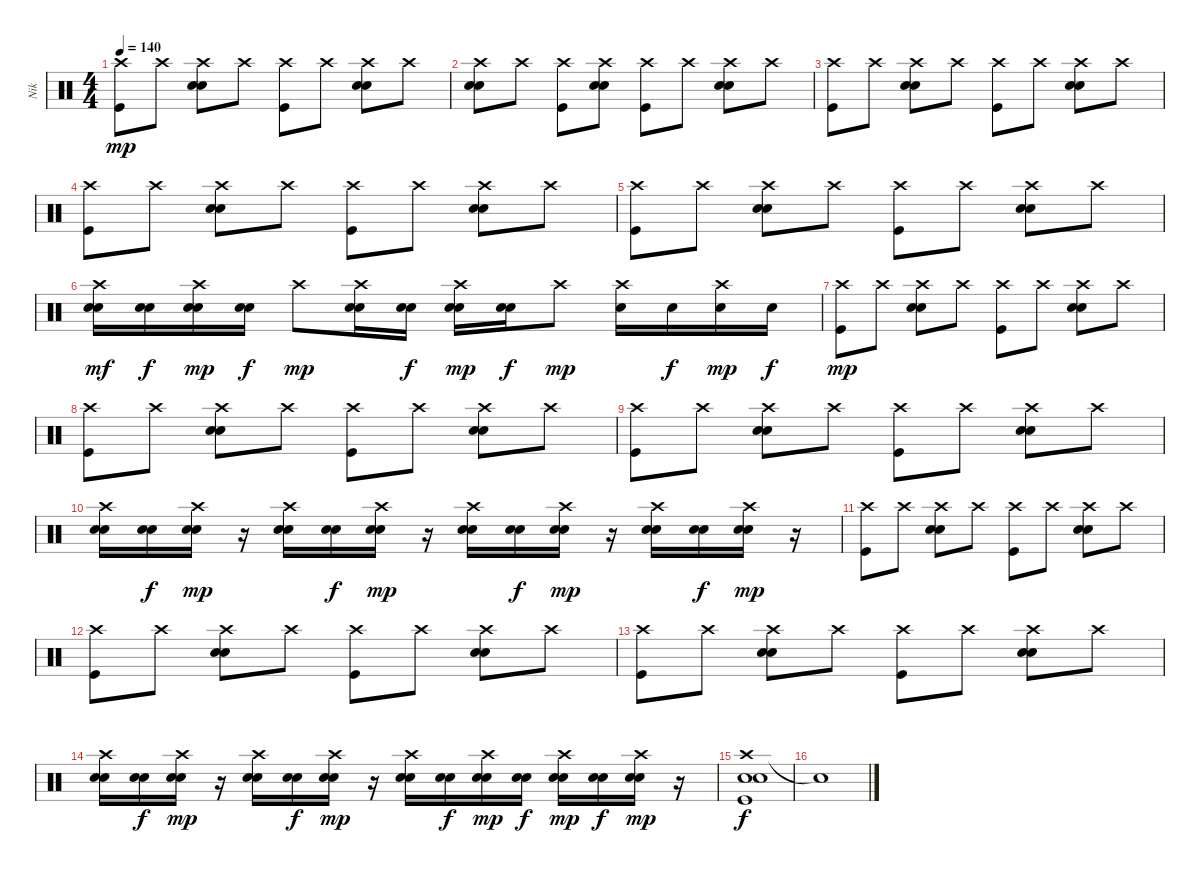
\track ("Nik" "Nik") {instrument percussion}
\staff {score}
\articulation defaults
\ts (4 4)
\tempo 140
\clef neutral
\ks c
("Kick (hit)" "Crash high (hit)").8{dy mp} "Crash high (hit)".8 ("Electric Snare (hit)" "Electric Snare (hit)" "Crash high (hit)").8 "Crash high (hit)".8 ("Kick (hit)" "Crash high (hit)").8 "Crash high (hit)".8 ("Electric Snare (hit)" "Electric Snare (hit)" "Crash high (hit)").8 "Crash high (hit)".8 |
("Electric Snare (hit)" "Electric Snare (hit)" "Crash high (hit)").8 "Crash high (hit)".8 ("Kick (hit)" "Crash high (hit)").8 ("Electric Snare (hit)" "Electric Snare (hit)" "Crash high (hit)").8 ("Kick (hit)" "Crash high (hit)").8 "Crash high (hit)".8 ("Electric Snare (hit)" "Electric Snare (hit)" "Crash high (hit)").8 "Crash high (hit)".8 |
("Kick (hit)" "Crash high (hit)").8 "Crash high (hit)".8 ("Electric Snare (hit)" "Electric Snare (hit)" "Crash high (hit)").8 "Crash high (hit)".8 ("Kick (hit)" "Crash high (hit)").8 "Crash high (hit)".8 ("Electric Snare (hit)" "Electric Snare (hit)" "Crash high (hit)").8 "Crash high (hit)".8 |
("Kick (hit)" "Crash high (hit)").8 "Crash high (hit)".8 ("Electric Snare (hit)" "Electric Snare (hit)" "Crash high (hit)").8 "Crash high (hit)".8 ("Kick (hit)" "Crash high (hit)").8 "Crash high (hit)".8 ("Electric Snare (hit)" "Electric Snare (hit)" "Crash high (hit)").8 "Crash high (hit)".8 |
("Kick (hit)" "Crash high (hit)").8 "Crash high (hit)".8 ("Electric Snare (hit)" "Electric Snare (hit)" "Crash high (hit)").8 "Crash high (hit)".8 ("Kick (hit)" "Crash high (hit)").8 "Crash high (hit)".8 ("Electric Snare (hit)" "Electric Snare (hit)" "Crash high (hit)").8 "Crash high (hit)".8 |
("Crash high (hit)" "Electric Snare (hit)" "Electric Snare (hit)").16{dy mf} ("Electric Snare (hit)" "Electric Snare (hit)").16{dy f} ("Crash high (hit)" "Electric Snare (hit)" "Electric Snare (hit)").16{dy mp} ("Electric Snare (hit)" "Electric Snare (hit)").16{dy f} "Crash high (hit)".8{dy mp} ("Crash high (hit)" "Electric Snare (hit)" "Electric Snare (hit)").16 ("Electric Snare (hit)" "Electric Snare (hit)").16{dy f} ("Crash high (hit)" "Electric Snare (hit)" "Electric Snare (hit)").16{dy mp} ("Electric Snare (hit)" "Electric Snare (hit)").16{dy f} "Crash high (hit)".8{dy mp} ("Crash high (hit)" "Electric Snare (hit)").16 "Electric Snare (hit)".16{dy f} ("Crash high (hit)" "Electric Snare (hit)").16{dy mp} "Electric Snare (hit)".16{dy f} |
("Kick (hit)" "Crash high (hit)").8{dy mp} "Crash high (hit)".8 ("Electric Snare (hit)" "Electric Snare (hit)" "Crash high (hit)").8 "Crash high (hit)".8 ("Kick (hit)" "Crash high (hit)").8 "Crash high (hit)".8 ("Electric Snare (hit)" "Electric Snare (hit)" "Crash high (hit)").8 "Crash high (hit)".8 |
("Kick (hit)" "Crash high (hit)").8 "Crash high (hit)".8 ("Electric Snare (hit)" "Electric Snare (hit)" "Crash high (hit)").8 "Crash high (hit)".8 ("Kick (hit)" "Crash high (hit)").8 "Crash high (hit)".8 ("Electric Snare (hit)" "Electric Snare (hit)" "Crash high (hit)").8 "Crash high (hit)".8 |
("Kick (hit)" "Crash high (hit)").8 "Crash high (hit)".8 ("Electric Snare (hit)" "Electric Snare (hit)" "Crash high (hit)").8 "Crash high (hit)".8 ("Kick (hit)" "Crash high (hit)").8 "Crash high (hit)".8 ("Electric Snare (hit)" "Electric Snare (hit)" "Crash high (hit)").8 "Crash high (hit)".8 |
("Crash high (hit)" "Electric Snare (hit)" "Electric Snare (hit)").16 ("Electric Snare (hit)" "Electric Snare (hit)").16{dy f} ("Crash high (hit)" "Electric Snare (hit)" "Electric Snare (hit)").16{dy mp} r.16 ("Crash high (hit)" "Electric Snare (hit)" "Electric Snare (hit)").16 ("Electric Snare (hit)" "Electric Snare (hit)").16{dy f} ("Crash high (hit)" "Electric Snare (hit)" "Electric Snare (hit)").16{dy mp} r.16 ("Crash high (hit)" "Electric Snare (hit)" "Electric Snare (hit)").16 ("Electric Snare (hit)" "Electric Snare (hit)").16{dy f} ("Crash high (hit)" "Electric Snare (hit)" "Electric Snare (hit)").16{dy mp} r.16 ("Crash high (hit)" "Electric Snare (hit)" "Electric Snare (hit)").16 ("Electric Snare (hit)" "Electric Snare (hit)").16{dy f} ("Crash high (hit)" "Electric Snare (hit)" "Electric Snare (hit)").16{dy mp} r.16 |
("Kick (hit)" "Crash high (hit)").8 "Crash high (hit)".8 ("Electric Snare (hit)" "Electric Snare (hit)" "Crash high (hit)").8 "Crash high (hit)".8 ("Kick (hit)" "Crash high (hit)").8 "Crash high (hit)".8 ("Electric Snare (hit)" "Electric Snare (hit)" "Crash high (hit)").8 "Crash high (hit)".8 |
("Kick (hit)" "Crash high (hit)").8 "Crash high (hit)".8 ("Electric Snare (hit)" "Electric Snare (hit)" "Crash high (hit)").8 "Crash high (hit)".8 ("Kick (hit)" "Crash high (hit)").8 "Crash high (hit)".8 ("Electric Snare (hit)" "Electric Snare (hit)" "Crash high (hit)").8 "Crash high (hit)".8 |
("Kick (hit)" "Crash high (hit)").8 "Crash high (hit)".8 ("Electric Snare (hit)" "Electric Snare (hit)" "Crash high (hit)").8 "Crash high (hit)".8 ("Kick (hit)" "Crash high (hit)").8 "Crash high (hit)".8 ("Electric Snare (hit)" "Electric Snare (hit)" "Crash high (hit)").8 "Crash high (hit)".8 |
("Crash high (hit)" "Electric Snare (hit)" "Electric Snare (hit)").16 ("Electric Snare (hit)" "Electric Snare (hit)").16{dy f} ("Crash high (hit)" "Electric Snare (hit)" "Electric Snare (hit)").16{dy mp} r.16 ("Crash high (hit)" "Electric Snare (hit)" "Electric Snare (hit)").16 ("Electric Snare (hit)" "Electric Snare (hit)").16{dy f} ("Crash high (hit)" "Electric Snare (hit)" "Electric Snare (hit)").16{dy mp} r.16 ("Crash high (hit)" "Electric Snare (hit)" "Electric Snare (hit)").16 ("Electric Snare (hit)" "Electric Snare (hit)").16{dy f} ("Crash high (hit)" "Electric Snare (hit)" "Electric Snare (hit)").16{dy mp} ("Electric Snare (hit)" "Electric Snare (hit)").16{dy f} ("Crash high (hit)" "Electric Snare (hit)" "Electric Snare (hit)").16{dy mp} ("Electric Snare (hit)" "Electric Snare (hit)").16{dy f} ("Crash high (hit)" "Electric Snare (hit)" "Electric Snare (hit)").16{dy mp} r.16 |
("Crash high (hit)" "Electric Snare (hit)" "Electric Snare (hit)" "Kick (hit)").1{dy f} |
"Snare (hit)"{t}.1
